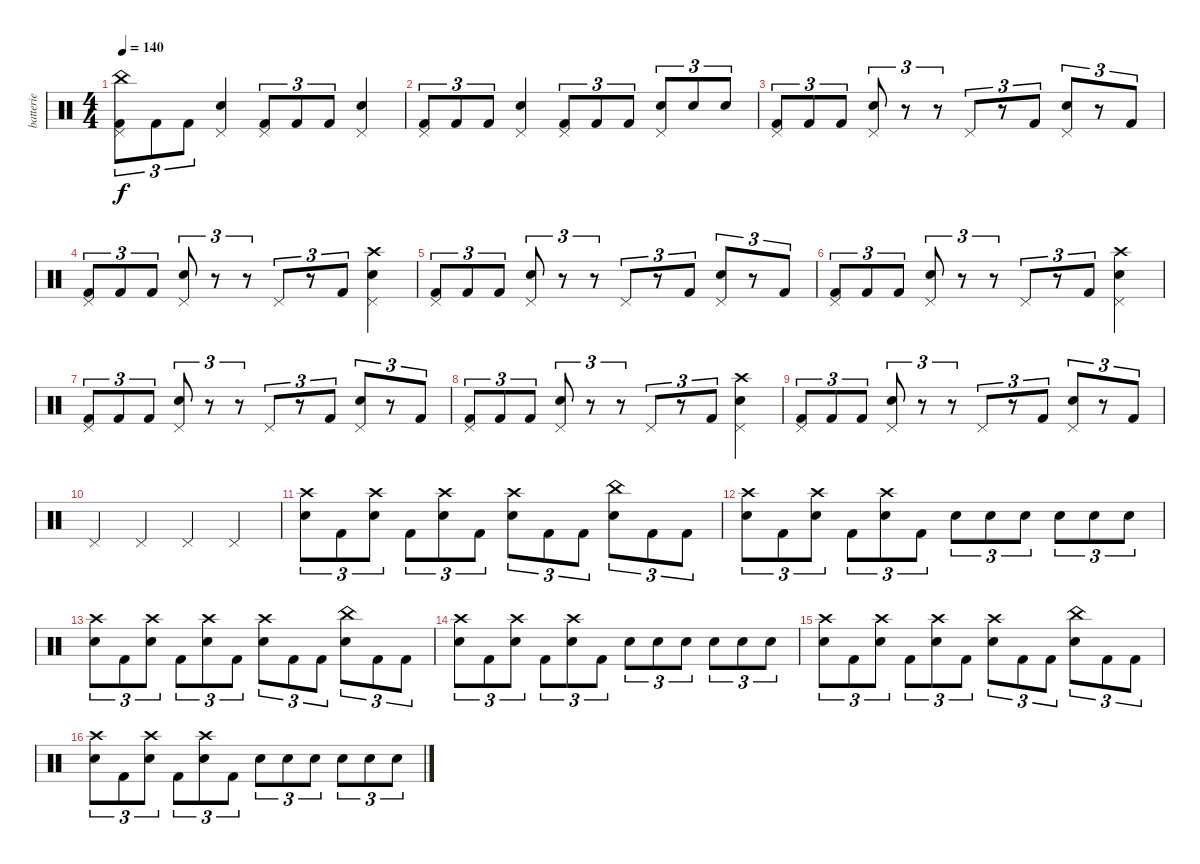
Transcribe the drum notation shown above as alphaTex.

\track ("batterie" "batterie") {instrument percussion}
\staff {score}
\articulation defaults
\ts (4 4)
\tempo 140
\clef neutral
\ks c
("China (hit)" "Kick (hit) 2" "Pedal Hi-Hat (hit)").8{tu (3 2) dy f} "Kick (hit) 2".8{tu (3 2)} "Kick (hit) 2".8{tu (3 2)} ("Snare (hit) 2" "Pedal Hi-Hat (hit)").4 ("Kick (hit) 2" "Pedal Hi-Hat (hit)").8{tu (3 2)} "Kick (hit) 2".8{tu (3 2)} "Kick (hit) 2".8{tu (3 2)} ("Snare (hit) 2" "Pedal Hi-Hat (hit)").4 |
("Kick (hit) 2" "Pedal Hi-Hat (hit)").8{tu (3 2)} "Kick (hit) 2".8{tu (3 2)} "Kick (hit) 2".8{tu (3 2)} ("Snare (hit) 2" "Pedal Hi-Hat (hit)").4 ("Kick (hit) 2" "Pedal Hi-Hat (hit)").8{tu (3 2)} "Kick (hit) 2".8{tu (3 2)} "Kick (hit) 2".8{tu (3 2)} ("Snare (hit) 2" "Pedal Hi-Hat (hit)").8{tu (3 2)} "Snare (hit) 2".8{tu (3 2)} "Snare (hit) 2".8{tu (3 2)} |
("Kick (hit) 2" "Pedal Hi-Hat (hit)").8{tu (3 2)} "Kick (hit) 2".8{tu (3 2)} "Kick (hit) 2".8{tu (3 2)} ("Snare (hit) 2" "Pedal Hi-Hat (hit)").8{tu (3 2)} r.8{tu (3 2)} r.8{tu (3 2)} "Pedal Hi-Hat (hit)".8{tu (3 2)} r.8{tu (3 2)} "Kick (hit) 2".8{tu (3 2)} ("Snare (hit) 2" "Pedal Hi-Hat (hit)").8{tu (3 2)} r.8{tu (3 2)} "Kick (hit) 2".8{tu (3 2)} |
("Kick (hit) 2" "Pedal Hi-Hat (hit)").8{tu (3 2)} "Kick (hit) 2".8{tu (3 2)} "Kick (hit) 2".8{tu (3 2)} ("Snare (hit) 2" "Pedal Hi-Hat (hit)").8{tu (3 2)} r.8{tu (3 2)} r.8{tu (3 2)} "Pedal Hi-Hat (hit)".8{tu (3 2)} r.8{tu (3 2)} "Kick (hit) 2".8{tu (3 2)} ("Crash high (hit)" "Snare (hit) 2" "Pedal Hi-Hat (hit)").4 |
("Kick (hit) 2" "Pedal Hi-Hat (hit)").8{tu (3 2)} "Kick (hit) 2".8{tu (3 2)} "Kick (hit) 2".8{tu (3 2)} ("Snare (hit) 2" "Pedal Hi-Hat (hit)").8{tu (3 2)} r.8{tu (3 2)} r.8{tu (3 2)} "Pedal Hi-Hat (hit)".8{tu (3 2)} r.8{tu (3 2)} "Kick (hit) 2".8{tu (3 2)} ("Snare (hit) 2" "Pedal Hi-Hat (hit)").8{tu (3 2)} r.8{tu (3 2)} "Kick (hit) 2".8{tu (3 2)} |
("Kick (hit) 2" "Pedal Hi-Hat (hit)").8{tu (3 2)} "Kick (hit) 2".8{tu (3 2)} "Kick (hit) 2".8{tu (3 2)} ("Snare (hit) 2" "Pedal Hi-Hat (hit)").8{tu (3 2)} r.8{tu (3 2)} r.8{tu (3 2)} "Pedal Hi-Hat (hit)".8{tu (3 2)} r.8{tu (3 2)} "Kick (hit) 2".8{tu (3 2)} ("Crash high (hit)" "Snare (hit) 2" "Pedal Hi-Hat (hit)").4 |
("Kick (hit) 2" "Pedal Hi-Hat (hit)").8{tu (3 2)} "Kick (hit) 2".8{tu (3 2)} "Kick (hit) 2".8{tu (3 2)} ("Snare (hit) 2" "Pedal Hi-Hat (hit)").8{tu (3 2)} r.8{tu (3 2)} r.8{tu (3 2)} "Pedal Hi-Hat (hit)".8{tu (3 2)} r.8{tu (3 2)} "Kick (hit) 2".8{tu (3 2)} ("Snare (hit) 2" "Pedal Hi-Hat (hit)").8{tu (3 2)} r.8{tu (3 2)} "Kick (hit) 2".8{tu (3 2)} |
("Kick (hit) 2" "Pedal Hi-Hat (hit)").8{tu (3 2)} "Kick (hit) 2".8{tu (3 2)} "Kick (hit) 2".8{tu (3 2)} ("Snare (hit) 2" "Pedal Hi-Hat (hit)").8{tu (3 2)} r.8{tu (3 2)} r.8{tu (3 2)} "Pedal Hi-Hat (hit)".8{tu (3 2)} r.8{tu (3 2)} "Kick (hit) 2".8{tu (3 2)} ("Crash high (hit)" "Snare (hit) 2" "Pedal Hi-Hat (hit)").4 |
("Kick (hit) 2" "Pedal Hi-Hat (hit)").8{tu (3 2)} "Kick (hit) 2".8{tu (3 2)} "Kick (hit) 2".8{tu (3 2)} ("Snare (hit) 2" "Pedal Hi-Hat (hit)").8{tu (3 2)} r.8{tu (3 2)} r.8{tu (3 2)} "Pedal Hi-Hat (hit)".8{tu (3 2)} r.8{tu (3 2)} "Kick (hit) 2".8{tu (3 2)} ("Snare (hit) 2" "Pedal Hi-Hat (hit)").8{tu (3 2)} r.8{tu (3 2)} "Kick (hit) 2".8{tu (3 2)} |
"Pedal Hi-Hat (hit)".4 "Pedal Hi-Hat (hit)".4 "Pedal Hi-Hat (hit)".4 "Pedal Hi-Hat (hit)".4 |
("Crash high (hit)" "Snare (hit) 2").8{tu (3 2)} "Kick (hit) 2".8{tu (3 2)} ("Crash high (hit)" "Snare (hit) 2").8{tu (3 2)} "Kick (hit) 2".8{tu (3 2)} ("Crash high (hit)" "Snare (hit) 2").8{tu (3 2)} "Kick (hit) 2".8{tu (3 2)} ("Crash high (hit)" "Snare (hit) 2").8{tu (3 2)} "Kick (hit) 2".8{tu (3 2)} "Kick (hit) 2".8{tu (3 2)} ("China (hit)" "Snare (hit) 2").8{tu (3 2)} "Kick (hit) 2".8{tu (3 2)} "Kick (hit) 2".8{tu (3 2)} |
("Crash high (hit)" "Snare (hit) 2").8{tu (3 2)} "Kick (hit) 2".8{tu (3 2)} ("Crash high (hit)" "Snare (hit) 2").8{tu (3 2)} "Kick (hit) 2".8{tu (3 2)} ("Crash high (hit)" "Snare (hit) 2").8{tu (3 2)} "Kick (hit) 2".8{tu (3 2)} "Snare (hit) 2".8{tu (3 2)} "Snare (hit) 2".8{tu (3 2)} "Snare (hit) 2".8{tu (3 2)} "Snare (hit) 2".8{tu (3 2)} "Snare (hit) 2".8{tu (3 2)} "Snare (hit) 2".8{tu (3 2)} |
("Crash high (hit)" "Snare (hit) 2").8{tu (3 2)} "Kick (hit) 2".8{tu (3 2)} ("Crash high (hit)" "Snare (hit) 2").8{tu (3 2)} "Kick (hit) 2".8{tu (3 2)} ("Crash high (hit)" "Snare (hit) 2").8{tu (3 2)} "Kick (hit) 2".8{tu (3 2)} ("Crash high (hit)" "Snare (hit) 2").8{tu (3 2)} "Kick (hit) 2".8{tu (3 2)} "Kick (hit) 2".8{tu (3 2)} ("China (hit)" "Snare (hit) 2").8{tu (3 2)} "Kick (hit) 2".8{tu (3 2)} "Kick (hit) 2".8{tu (3 2)} |
("Crash high (hit)" "Snare (hit) 2").8{tu (3 2)} "Kick (hit) 2".8{tu (3 2)} ("Crash high (hit)" "Snare (hit) 2").8{tu (3 2)} "Kick (hit) 2".8{tu (3 2)} ("Crash high (hit)" "Snare (hit) 2").8{tu (3 2)} "Kick (hit) 2".8{tu (3 2)} "Snare (hit) 2".8{tu (3 2)} "Snare (hit) 2".8{tu (3 2)} "Snare (hit) 2".8{tu (3 2)} "Snare (hit) 2".8{tu (3 2)} "Snare (hit) 2".8{tu (3 2)} "Snare (hit) 2".8{tu (3 2)} |
("Crash high (hit)" "Snare (hit) 2").8{tu (3 2)} "Kick (hit) 2".8{tu (3 2)} ("Crash high (hit)" "Snare (hit) 2").8{tu (3 2)} "Kick (hit) 2".8{tu (3 2)} ("Crash high (hit)" "Snare (hit) 2").8{tu (3 2)} "Kick (hit) 2".8{tu (3 2)} ("Crash high (hit)" "Snare (hit) 2").8{tu (3 2)} "Kick (hit) 2".8{tu (3 2)} "Kick (hit) 2".8{tu (3 2)} ("China (hit)" "Snare (hit) 2").8{tu (3 2)} "Kick (hit) 2".8{tu (3 2)} "Kick (hit) 2".8{tu (3 2)} |
("Crash high (hit)" "Snare (hit) 2").8{tu (3 2)} "Kick (hit) 2".8{tu (3 2)} ("Crash high (hit)" "Snare (hit) 2").8{tu (3 2)} "Kick (hit) 2".8{tu (3 2)} ("Crash high (hit)" "Snare (hit) 2").8{tu (3 2)} "Kick (hit) 2".8{tu (3 2)} "Snare (hit) 2".8{tu (3 2)} "Snare (hit) 2".8{tu (3 2)} "Snare (hit) 2".8{tu (3 2)} "Snare (hit) 2".8{tu (3 2)} "Snare (hit) 2".8{tu (3 2)} "Snare (hit) 2".8{tu (3 2)}
